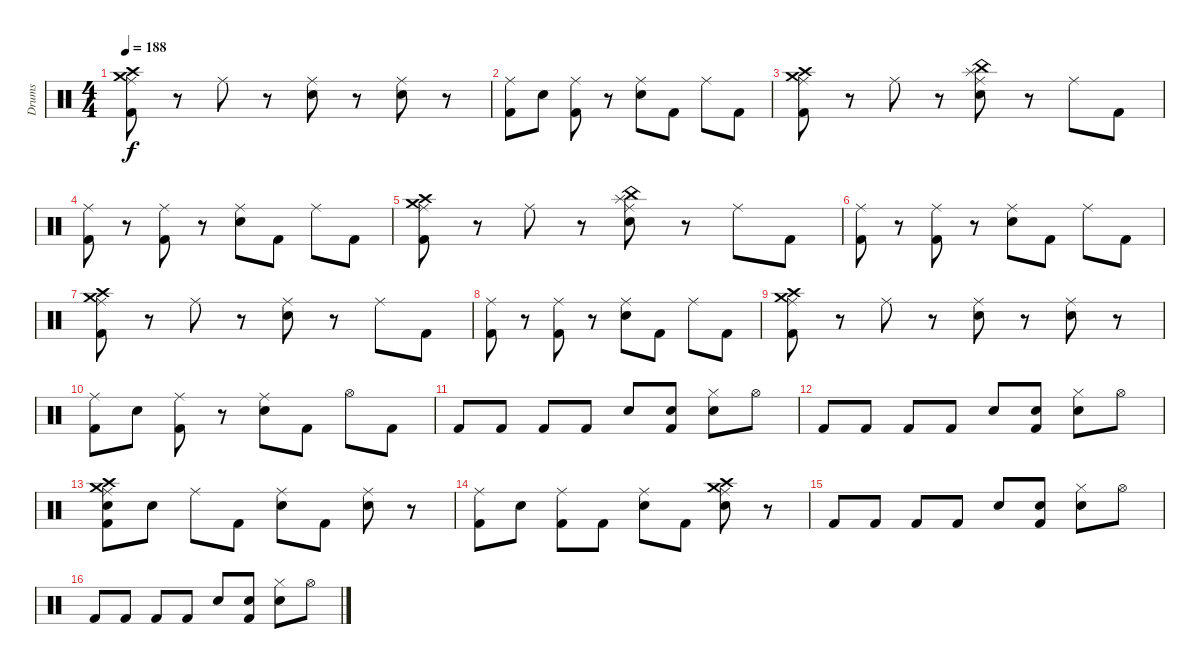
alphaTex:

\track ("Drums" "Drums") {instrument percussion}
\staff {score}
\articulation defaults
\ts (4 4)
\tempo 188
\clef neutral
\ks c
("Crash medium (hit)" "Crash high (hit)" "Ride (middle)" "Kick (hit) 2").8{dy f} r.8 "Ride (middle)".8 r.8 ("Ride (middle)" "Snare (hit) 2").8 r.8 ("Ride (middle)" "Snare (hit) 2").8 r.8 |
("Ride (middle)" "Kick (hit) 2").8 "Snare (hit) 2".8 ("Ride (middle)" "Kick (hit) 2").8 r.8 ("Ride (middle)" "Snare (hit) 2").8 "Kick (hit) 2".8 "Ride (middle)".8 "Kick (hit) 2".8 |
("Crash medium (hit)" "Crash high (hit)" "Ride (middle)" "Kick (hit) 2").8 r.8 "Ride (middle)".8 r.8 ("Splash (hit)" "China (hit)" "Ride (middle)" "Snare (hit) 2").8 r.8 "Ride (middle)".8 "Kick (hit) 2".8 |
("Ride (middle)" "Kick (hit) 2").8 r.8 ("Ride (middle)" "Kick (hit) 2").8 r.8 ("Ride (middle)" "Snare (hit) 2").8 "Kick (hit) 2".8 "Ride (middle)".8 "Kick (hit) 2".8 |
("Crash medium (hit)" "Crash high (hit)" "Ride (middle)" "Kick (hit) 2").8 r.8 "Ride (middle)".8 r.8 ("Splash (hit)" "China (hit)" "Ride (middle)" "Snare (hit) 2").8 r.8 "Ride (middle)".8 "Kick (hit) 2".8 |
("Ride (middle)" "Kick (hit) 2").8 r.8 ("Ride (middle)" "Kick (hit) 2").8 r.8 ("Ride (middle)" "Snare (hit) 2").8 "Kick (hit) 2".8 "Ride (middle)".8 "Kick (hit) 2".8 |
("Crash medium (hit)" "Crash high (hit)" "Ride (middle)" "Kick (hit) 2").8 r.8 "Ride (middle)".8 r.8 ("Ride (middle)" "Snare (hit) 2").8 r.8 "Ride (middle)".8 "Kick (hit) 2".8 |
("Ride (middle)" "Kick (hit) 2").8 r.8 ("Ride (middle)" "Kick (hit) 2").8 r.8 ("Ride (middle)" "Snare (hit) 2").8 "Kick (hit) 2".8 "Ride (middle)".8 "Kick (hit) 2".8 |
("Crash medium (hit)" "Crash high (hit)" "Ride (middle)" "Kick (hit) 2").8 r.8 "Ride (middle)".8 r.8 ("Ride (middle)" "Snare (hit) 2").8 r.8 ("Ride (middle)" "Snare (hit) 2").8 r.8 |
("Ride (middle)" "Kick (hit) 2").8 "Snare (hit) 2".8 ("Ride (middle)" "Kick (hit) 2").8 r.8 ("Ride (middle)" "Snare (hit) 2").8 "Kick (hit) 2".8 "Hi-Hat (open)".8 "Kick (hit) 2".8 |
"Kick (hit) 2".8 "Kick (hit) 2".8 "Kick (hit) 2".8 "Kick (hit) 2".8 "Snare (hit) 2".8 ("Snare (hit) 2" "Kick (hit) 2").8 ("Hi-Hat (closed)" "Snare (hit) 2").8 "Hi-Hat (open)".8 |
"Kick (hit) 2".8 "Kick (hit) 2".8 "Kick (hit) 2".8 "Kick (hit) 2".8 "Snare (hit) 2".8 ("Snare (hit) 2" "Kick (hit) 2").8 ("Hi-Hat (closed)" "Snare (hit) 2").8 "Hi-Hat (open)".8 |
("Crash medium (hit)" "Crash high (hit)" "Ride (middle)" "Snare (hit) 2" "Kick (hit) 2").8 "Snare (hit) 2".8 "Ride (middle)".8 "Kick (hit) 2".8 ("Ride (middle)" "Snare (hit) 2").8 "Kick (hit) 2".8 ("Ride (middle)" "Snare (hit) 2").8 r.8 |
("Ride (middle)" "Kick (hit) 2").8 "Snare (hit) 2".8 ("Ride (middle)" "Kick (hit) 2").8 "Kick (hit) 2".8 ("Ride (middle)" "Snare (hit) 2").8 "Kick (hit) 2".8 ("Crash medium (hit)" "Crash high (hit)" "Ride (middle)" "Snare (hit) 2").8 r.8 |
"Kick (hit) 2".8 "Kick (hit) 2".8 "Kick (hit) 2".8 "Kick (hit) 2".8 "Snare (hit) 2".8 ("Snare (hit) 2" "Kick (hit) 2").8 ("Hi-Hat (closed)" "Snare (hit) 2").8 "Hi-Hat (open)".8 |
"Kick (hit) 2".8 "Kick (hit) 2".8 "Kick (hit) 2".8 "Kick (hit) 2".8 "Snare (hit) 2".8 ("Snare (hit) 2" "Kick (hit) 2").8 ("Hi-Hat (closed)" "Snare (hit) 2").8 "Hi-Hat (open)".8
